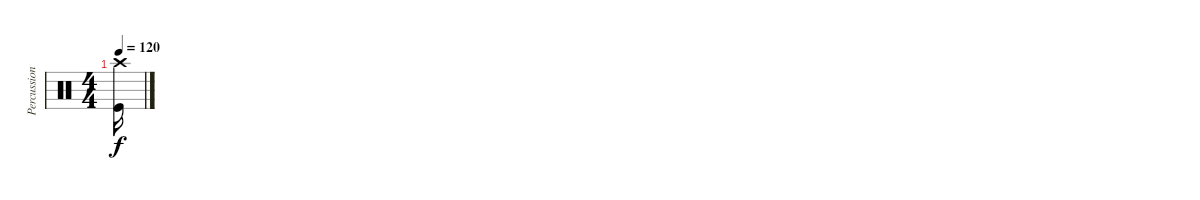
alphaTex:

\track ("Percussion" "Percussion") {instrument percussion}
\staff {score}
\articulation defaults
\ts (4 4)
\tempo 120
\clef neutral
\ks c
("Kick (hit)" "Crash high (hit)").16{dy f}
